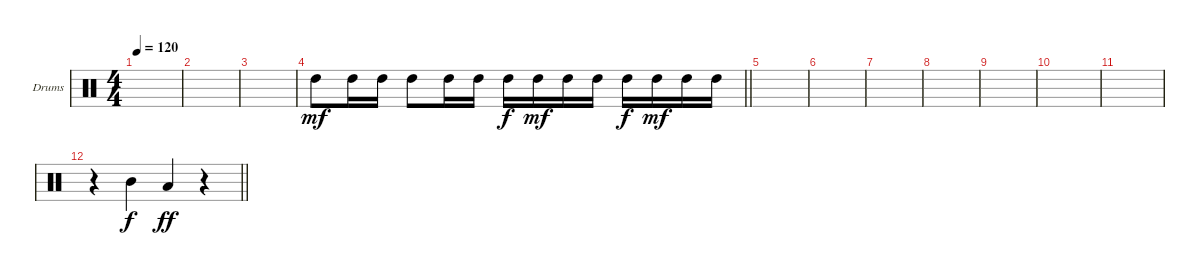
\defaultSystemsLayout 4
\bracketExtendMode groupsimilarinstruments
\firstSystemTrackNameOrientation horizontal
\otherSystemsTrackNameOrientation horizontal
\track ("Drums Aux" "Drums") {instrument percussion}
\staff {score}
\articulation defaults
\ts (4 4)
\tempo 120
\clef neutral
\ks c
|
|
|
\barLineRight lightlight "High Tom (hit)".8{dy mf} "High Tom (hit)".16 "High Tom (hit)".16 "High Tom (hit)".8 "High Tom (hit)".16 "High Tom (hit)".16 "High Tom (hit)".16{dy f} "High Tom (hit)".16{dy mf} "High Tom (hit)".16 "High Tom (hit)".16 "High Tom (hit)".16{dy f} "High Tom (hit)".16{dy mf} "High Tom (hit)".16 "High Tom (hit)".16
|
|
|
|
|
|
|
|
\barLineRight lightlight
r.4 "Mid Tom (hit)".4{dy f} "Low Tom (hit)".4{dy ff} r.4
